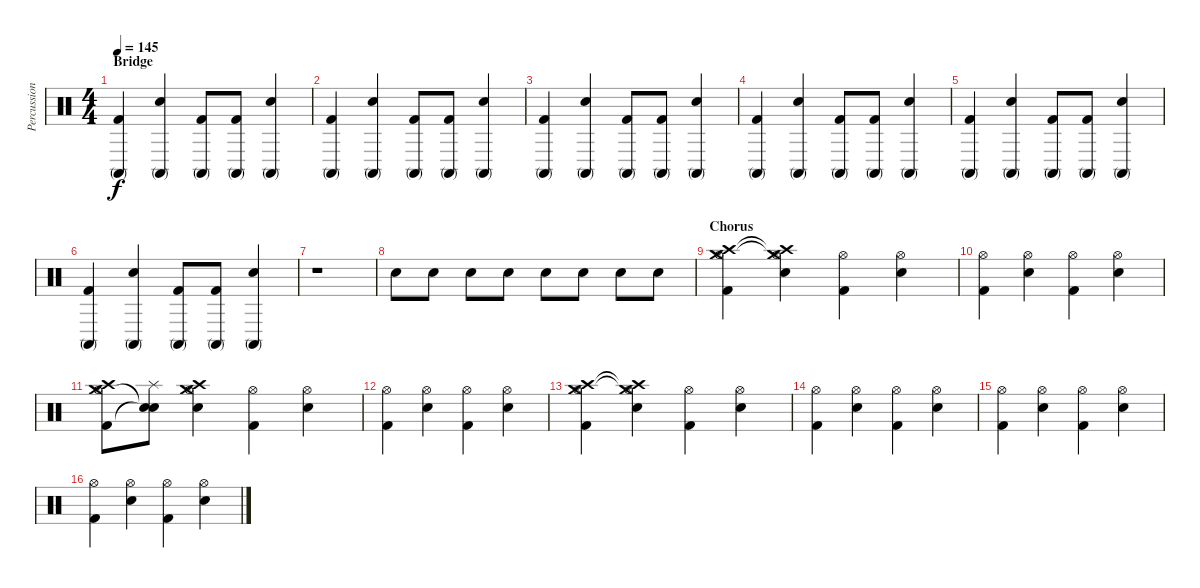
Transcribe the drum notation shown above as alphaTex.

\track ("Percussions" "Percussion") {instrument percussion}
\staff {score}
\articulation defaults
\ts (4 4)
\section ("" "Bridge")
\tempo 145
\clef neutral
\ks c
("Kick (hit) 2" "Conga high (mute)").4{dy f} ("Snare (hit) 2" "Conga high (mute)").4 ("Kick (hit) 2" "Conga high (mute)").8 ("Kick (hit) 2" "Conga high (mute)").8 ("Snare (hit) 2" "Conga high (mute)").4 |
("Kick (hit) 2" "Conga high (mute)").4 ("Snare (hit) 2" "Conga high (mute)").4 ("Kick (hit) 2" "Conga high (mute)").8 ("Kick (hit) 2" "Conga high (mute)").8 ("Snare (hit) 2" "Conga high (mute)").4 |
("Kick (hit) 2" "Conga high (mute)").4 ("Snare (hit) 2" "Conga high (mute)").4 ("Kick (hit) 2" "Conga high (mute)").8 ("Kick (hit) 2" "Conga high (mute)").8 ("Snare (hit) 2" "Conga high (mute)").4 |
("Kick (hit) 2" "Conga high (mute)").4 ("Snare (hit) 2" "Conga high (mute)").4 ("Kick (hit) 2" "Conga high (mute)").8 ("Kick (hit) 2" "Conga high (mute)").8 ("Snare (hit) 2" "Conga high (mute)").4 |
("Kick (hit) 2" "Conga high (mute)").4 ("Snare (hit) 2" "Conga high (mute)").4 ("Kick (hit) 2" "Conga high (mute)").8 ("Kick (hit) 2" "Conga high (mute)").8 ("Snare (hit) 2" "Conga high (mute)").4 |
("Kick (hit) 2" "Conga high (mute)").4 ("Snare (hit) 2" "Conga high (mute)").4 ("Kick (hit) 2" "Conga high (mute)").8 ("Kick (hit) 2" "Conga high (mute)").8 ("Snare (hit) 2" "Conga high (mute)").4 |
r.1 |
"Snare (hit) 2".8 "Snare (hit) 2".8 "Snare (hit) 2".8 "Snare (hit) 2".8 "Snare (hit) 2".8 "Snare (hit) 2".8 "Snare (hit) 2".8 "Snare (hit) 2".8 |
\section ("" "Chorus")
("Kick (hit) 2" "Hi-Hat (open)" "Crash medium (hit)" "Crash high (hit)").4 ("Snare (hit) 2" "Hi-Hat (open)" "Crash medium (hit)"{t} "Crash high (hit)"{t}).4 ("Kick (hit) 2" "Hi-Hat (open)").4 ("Snare (hit) 2" "Hi-Hat (open)").4 |
("Kick (hit) 2" "Hi-Hat (open)").4 ("Snare (hit) 2" "Hi-Hat (open)").4 ("Kick (hit) 2" "Hi-Hat (open)").4 ("Snare (hit) 2" "Hi-Hat (open)").4 |
("Kick (hit) 2" "Hi-Hat (open)" "Crash medium (hit)" "Crash high (hit)").8 ("Snare (hit)"{t} "Snare (hit)"{t} "Splash (hit)").8 ("Snare (hit) 2" "Hi-Hat (open)" "Crash medium (hit)" "Crash high (hit)").4 ("Kick (hit) 2" "Hi-Hat (open)").4 ("Snare (hit) 2" "Hi-Hat (open)").4 |
("Kick (hit) 2" "Hi-Hat (open)").4 ("Snare (hit) 2" "Hi-Hat (open)").4 ("Kick (hit) 2" "Hi-Hat (open)").4 ("Snare (hit) 2" "Hi-Hat (open)").4 |
("Kick (hit) 2" "Hi-Hat (open)" "Crash medium (hit)" "Crash high (hit)").4 ("Snare (hit) 2" "Hi-Hat (open)" "Crash medium (hit)"{t} "Crash high (hit)"{t}).4 ("Kick (hit) 2" "Hi-Hat (open)").4 ("Snare (hit) 2" "Hi-Hat (open)").4 |
("Kick (hit) 2" "Hi-Hat (open)").4 ("Snare (hit) 2" "Hi-Hat (open)").4 ("Kick (hit) 2" "Hi-Hat (open)").4 ("Snare (hit) 2" "Hi-Hat (open)").4 |
("Kick (hit) 2" "Hi-Hat (open)").4 ("Snare (hit) 2" "Hi-Hat (open)").4 ("Kick (hit) 2" "Hi-Hat (open)").4 ("Snare (hit) 2" "Hi-Hat (open)").4 |
("Kick (hit) 2" "Hi-Hat (open)").4 ("Snare (hit) 2" "Hi-Hat (open)").4 ("Kick (hit) 2" "Hi-Hat (open)").4 ("Snare (hit) 2" "Hi-Hat (open)").4
